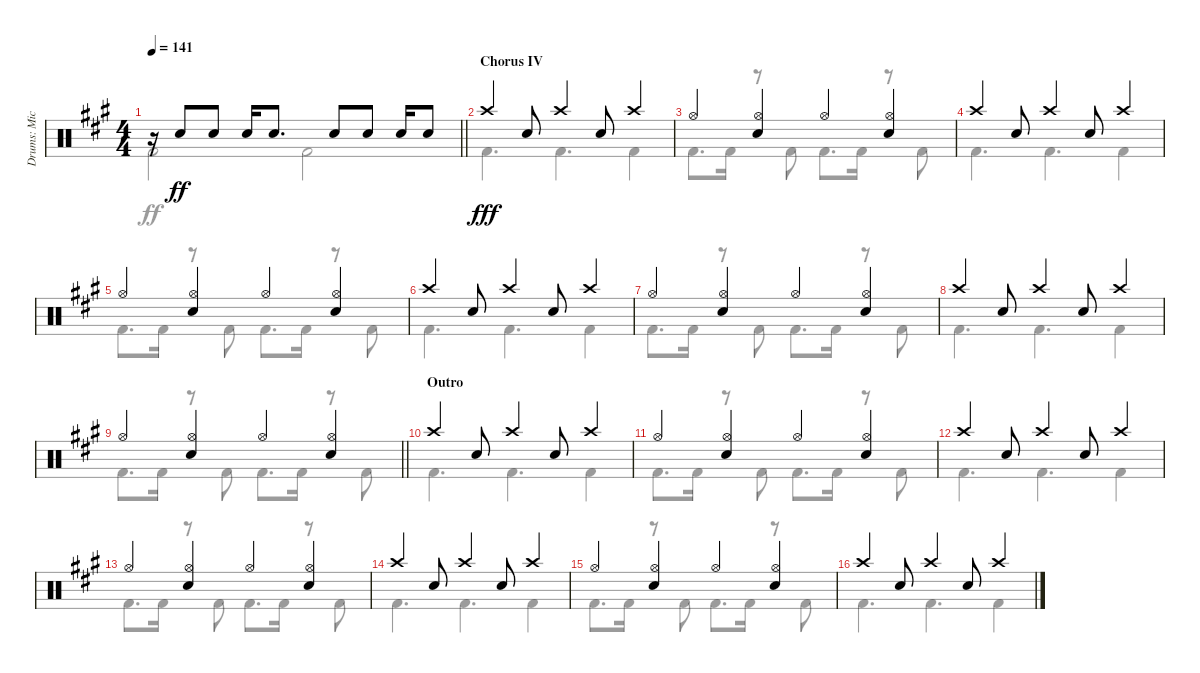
\track ("Drums: Mick" "Drums: Mic") {instrument percussion}
\staff {score}
\articulation defaults
\voice
\ts (4 4)
\tempo 141
\clef neutral
\barLineRight lightlight
\ks a
r.16{dy fff} "Snare (hit) 2".8{dy ff} "Snare (hit) 2".8 "Snare (hit) 2".16 "Snare (hit) 2".8{d} "Snare (hit) 2".8 "Snare (hit) 2".8 "Snare (hit) 2".16 "Snare (hit) 2".8 |
\section ("" "Chorus IV")
"Crash high (hit)".4{dy fff} "Snare (hit) 2".8 "Crash high (hit)".4 "Snare (hit) 2".8 "Crash high (hit)".4 |
"Hi-Hat (open)".4 ("Hi-Hat (open)" "Snare (hit) 2").4 "Hi-Hat (open)".4 ("Hi-Hat (open)" "Snare (hit) 2").4 |
"Crash high (hit)".4 "Snare (hit) 2".8 "Crash high (hit)".4 "Snare (hit) 2".8 "Crash high (hit)".4 |
"Hi-Hat (open)".4 ("Hi-Hat (open)" "Snare (hit) 2").4 "Hi-Hat (open)".4 ("Hi-Hat (open)" "Snare (hit) 2").4 |
"Crash high (hit)".4 "Snare (hit) 2".8 "Crash high (hit)".4 "Snare (hit) 2".8 "Crash high (hit)".4 |
"Hi-Hat (open)".4 ("Hi-Hat (open)" "Snare (hit) 2").4 "Hi-Hat (open)".4 ("Hi-Hat (open)" "Snare (hit) 2").4 |
"Crash high (hit)".4 "Snare (hit) 2".8 "Crash high (hit)".4 "Snare (hit) 2".8 "Crash high (hit)".4 |
\barLineRight lightlight "Hi-Hat (open)".4
("Hi-Hat (open)" "Snare (hit) 2").4 "Hi-Hat (open)".4 ("Hi-Hat (open)" "Snare (hit) 2").4 |
\section ("" "Outro")
"Crash high (hit)".4 "Snare (hit) 2".8 "Crash high (hit)".4 "Snare (hit) 2".8 "Crash high (hit)".4 |
"Hi-Hat (open)".4 ("Hi-Hat (open)" "Snare (hit) 2").4 "Hi-Hat (open)".4 ("Hi-Hat (open)" "Snare (hit) 2").4 |
"Crash high (hit)".4 "Snare (hit) 2".8 "Crash high (hit)".4 "Snare (hit) 2".8 "Crash high (hit)".4 |
"Hi-Hat (open)".4 ("Hi-Hat (open)" "Snare (hit) 2").4 "Hi-Hat (open)".4 ("Hi-Hat (open)" "Snare (hit) 2").4 |
"Crash high (hit)".4 "Snare (hit) 2".8 "Crash high (hit)".4 "Snare (hit) 2".8 "Crash high (hit)".4 |
"Hi-Hat (open)".4 ("Hi-Hat (open)" "Snare (hit) 2").4 "Hi-Hat (open)".4 ("Hi-Hat (open)" "Snare (hit) 2").4 |
"Crash high (hit)".4 "Snare (hit) 2".8 "Crash high (hit)".4 "Snare (hit) 2".8 "Crash high (hit)".4
\voice
\clef neutral
\ottava regular
\simile none
\barLineRight lightlight
\ks a "Kick (hit) 2".2{dy ff} "Kick (hit) 2".2
|
"Kick (hit) 2".4{d dy fff} "Kick (hit) 2".4{d} "Kick (hit) 2".4 |
"Kick (hit) 2".8{d} "Kick (hit) 2".16 r.8 "Kick (hit) 2".8 "Kick (hit) 2".8{d} "Kick (hit) 2".16 r.8 "Kick (hit) 2".8 |
"Kick (hit) 2".4{d} "Kick (hit) 2".4{d} "Kick (hit) 2".4 |
"Kick (hit) 2".8{d} "Kick (hit) 2".16 r.8 "Kick (hit) 2".8 "Kick (hit) 2".8{d} "Kick (hit) 2".16 r.8 "Kick (hit) 2".8 |
"Kick (hit) 2".4{d} "Kick (hit) 2".4{d} "Kick (hit) 2".4 |
"Kick (hit) 2".8{d} "Kick (hit) 2".16 r.8 "Kick (hit) 2".8 "Kick (hit) 2".8{d} "Kick (hit) 2".16 r.8 "Kick (hit) 2".8 |
"Kick (hit) 2".4{d} "Kick (hit) 2".4{d} "Kick (hit) 2".4 |
\barLineRight lightlight "Kick (hit) 2".8{d} "Kick (hit) 2".16
r.8 "Kick (hit) 2".8 "Kick (hit) 2".8{d} "Kick (hit) 2".16 r.8 "Kick (hit) 2".8 |
"Kick (hit) 2".4{d} "Kick (hit) 2".4{d} "Kick (hit) 2".4 |
"Kick (hit) 2".8{d} "Kick (hit) 2".16 r.8 "Kick (hit) 2".8 "Kick (hit) 2".8{d} "Kick (hit) 2".16 r.8 "Kick (hit) 2".8 |
"Kick (hit) 2".4{d} "Kick (hit) 2".4{d} "Kick (hit) 2".4 |
"Kick (hit) 2".8{d} "Kick (hit) 2".16 r.8 "Kick (hit) 2".8 "Kick (hit) 2".8{d} "Kick (hit) 2".16 r.8 "Kick (hit) 2".8 |
"Kick (hit) 2".4{d} "Kick (hit) 2".4{d} "Kick (hit) 2".4 |
"Kick (hit) 2".8{d} "Kick (hit) 2".16 r.8 "Kick (hit) 2".8 "Kick (hit) 2".8{d} "Kick (hit) 2".16 r.8 "Kick (hit) 2".8 |
"Kick (hit) 2".4{d} "Kick (hit) 2".4{d} "Kick (hit) 2".4
